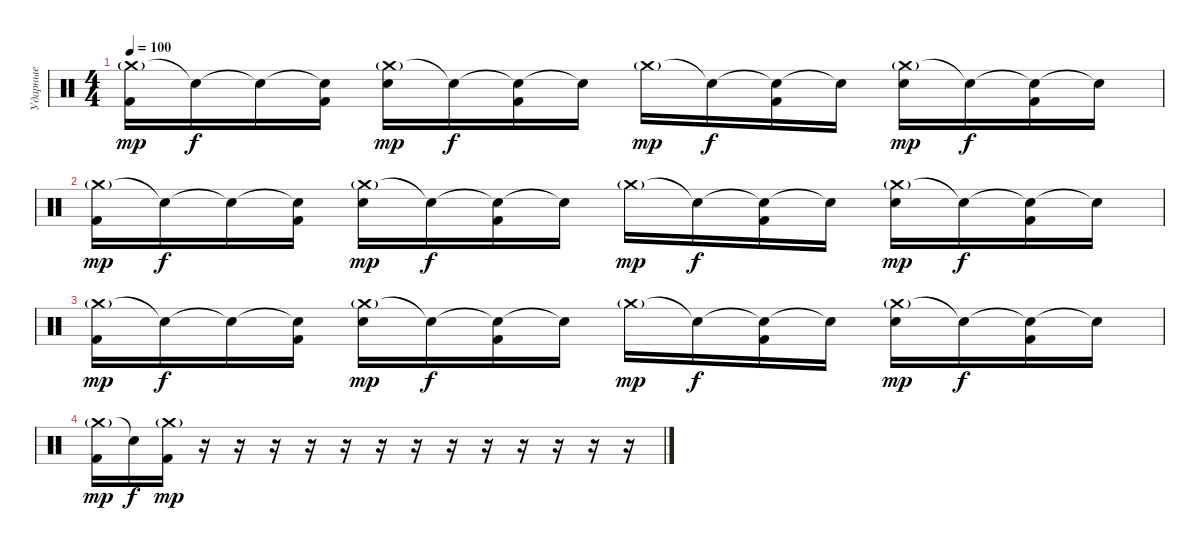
\track ("Ударные" "Ударные") {instrument percussion}
\staff {score}
\articulation defaults
\ts (4 4)
\tempo 100
\clef neutral
\ks c
("Crash medium (hit)"{g} "Kick (hit) 2").16{dy mp} "Snare (hit)"{t}.16{dy f} "Snare (hit)"{t}.16 ("Snare (hit)"{t} "Kick (hit) 2").16 ("Crash medium (hit)"{g} "Electric Snare (hit)").16{dy mp} "Snare (hit)"{t}.16{dy f} ("Snare (hit)"{t} "Kick (hit) 2").16 "Snare (hit)"{t}.16 "Crash medium (hit)"{g}.16{dy mp} "Snare (hit)"{t}.16{dy f} ("Snare (hit)"{t} "Kick (hit) 2").16 "Snare (hit)"{t}.16 ("Crash medium (hit)"{g} "Electric Snare (hit)").16{dy mp} "Snare (hit)"{t}.16{dy f} ("Snare (hit)"{t} "Kick (hit) 2").16 "Snare (hit)"{t}.16 |
("Crash medium (hit)"{g} "Kick (hit) 2").16{dy mp} "Snare (hit)"{t}.16{dy f} "Snare (hit)"{t}.16 ("Snare (hit)"{t} "Kick (hit) 2").16 ("Crash medium (hit)"{g} "Electric Snare (hit)").16{dy mp} "Snare (hit)"{t}.16{dy f} ("Snare (hit)"{t} "Kick (hit) 2").16 "Snare (hit)"{t}.16 "Crash medium (hit)"{g}.16{dy mp} "Snare (hit)"{t}.16{dy f} ("Snare (hit)"{t} "Kick (hit) 2").16 "Snare (hit)"{t}.16 ("Crash medium (hit)"{g} "Electric Snare (hit)").16{dy mp} "Snare (hit)"{t}.16{dy f} ("Snare (hit)"{t} "Kick (hit) 2").16 "Snare (hit)"{t}.16 |
("Crash medium (hit)"{g} "Kick (hit) 2").16{dy mp} "Snare (hit)"{t}.16{dy f} "Snare (hit)"{t}.16 ("Snare (hit)"{t} "Kick (hit) 2").16 ("Crash medium (hit)"{g} "Electric Snare (hit)").16{dy mp} "Snare (hit)"{t}.16{dy f} ("Snare (hit)"{t} "Kick (hit) 2").16 "Snare (hit)"{t}.16 "Crash medium (hit)"{g}.16{dy mp} "Snare (hit)"{t}.16{dy f} ("Snare (hit)"{t} "Kick (hit) 2").16 "Snare (hit)"{t}.16 ("Crash medium (hit)"{g} "Electric Snare (hit)").16{dy mp} "Snare (hit)"{t}.16{dy f} ("Snare (hit)"{t} "Kick (hit) 2").16 "Snare (hit)"{t}.16 |
("Crash medium (hit)"{g} "Kick (hit) 2").16{dy mp} "Snare (hit)"{t}.16{dy f} ("Crash medium (hit)"{g} "Kick (hit) 2").16{dy mp} r.16 r.16 r.16 r.16 r.16 r.16 r.16 r.16 r.16 r.16 r.16 r.16 r.16
